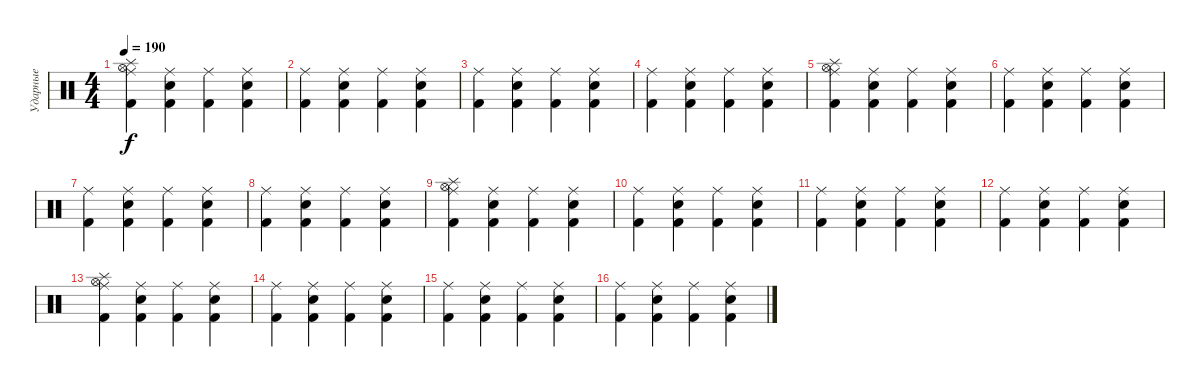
\track ("Ударные" "Ударные") {instrument percussion}
\staff {score}
\articulation defaults
\ts (4 4)
\tempo 190
\clef neutral
\ks c
("Hi-Hat (open)" "Ride (middle)" "Kick (hit) 2" "Splash (hit)").4{dy f} ("Ride (middle)" "Electric Snare (hit)" "Kick (hit) 2").4 ("Ride (middle)" "Kick (hit) 2").4 ("Ride (middle)" "Electric Snare (hit)" "Kick (hit) 2").4 |
("Ride (middle)" "Kick (hit) 2").4 ("Ride (middle)" "Electric Snare (hit)" "Kick (hit) 2").4 ("Ride (middle)" "Kick (hit) 2").4 ("Ride (middle)" "Electric Snare (hit)" "Kick (hit) 2").4 |
("Ride (middle)" "Kick (hit) 2").4 ("Ride (middle)" "Electric Snare (hit)" "Kick (hit) 2").4 ("Ride (middle)" "Kick (hit) 2").4 ("Ride (middle)" "Electric Snare (hit)" "Kick (hit) 2").4 |
("Ride (middle)" "Kick (hit) 2").4 ("Ride (middle)" "Electric Snare (hit)" "Kick (hit) 2").4 ("Ride (middle)" "Kick (hit) 2").4 ("Ride (middle)" "Electric Snare (hit)" "Kick (hit) 2").4 |
("Hi-Hat (open)" "Ride (middle)" "Kick (hit) 2" "Splash (hit)").4 ("Ride (middle)" "Electric Snare (hit)" "Kick (hit) 2").4 ("Ride (middle)" "Kick (hit) 2").4 ("Ride (middle)" "Electric Snare (hit)" "Kick (hit) 2").4 |
("Ride (middle)" "Kick (hit) 2").4 ("Ride (middle)" "Electric Snare (hit)" "Kick (hit) 2").4 ("Ride (middle)" "Kick (hit) 2").4 ("Ride (middle)" "Electric Snare (hit)" "Kick (hit) 2").4 |
("Ride (middle)" "Kick (hit) 2").4 ("Ride (middle)" "Electric Snare (hit)" "Kick (hit) 2").4 ("Ride (middle)" "Kick (hit) 2").4 ("Ride (middle)" "Electric Snare (hit)" "Kick (hit) 2").4 |
("Ride (middle)" "Kick (hit) 2").4 ("Ride (middle)" "Electric Snare (hit)" "Kick (hit) 2").4 ("Ride (middle)" "Kick (hit) 2").4 ("Ride (middle)" "Electric Snare (hit)" "Kick (hit) 2").4 |
("Hi-Hat (open)" "Ride (middle)" "Kick (hit) 2" "Splash (hit)").4 ("Ride (middle)" "Electric Snare (hit)" "Kick (hit) 2").4 ("Ride (middle)" "Kick (hit) 2").4 ("Ride (middle)" "Electric Snare (hit)" "Kick (hit) 2").4 |
("Ride (middle)" "Kick (hit) 2").4 ("Ride (middle)" "Electric Snare (hit)" "Kick (hit) 2").4 ("Ride (middle)" "Kick (hit) 2").4 ("Ride (middle)" "Electric Snare (hit)" "Kick (hit) 2").4 |
("Ride (middle)" "Kick (hit) 2").4 ("Ride (middle)" "Electric Snare (hit)" "Kick (hit) 2").4 ("Ride (middle)" "Kick (hit) 2").4 ("Ride (middle)" "Electric Snare (hit)" "Kick (hit) 2").4 |
("Ride (middle)" "Kick (hit) 2").4 ("Ride (middle)" "Electric Snare (hit)" "Kick (hit) 2").4 ("Ride (middle)" "Kick (hit) 2").4 ("Ride (middle)" "Electric Snare (hit)" "Kick (hit) 2").4 |
("Hi-Hat (open)" "Ride (middle)" "Kick (hit) 2" "Splash (hit)").4 ("Ride (middle)" "Electric Snare (hit)" "Kick (hit) 2").4 ("Ride (middle)" "Kick (hit) 2").4 ("Ride (middle)" "Electric Snare (hit)" "Kick (hit) 2").4 |
("Ride (middle)" "Kick (hit) 2").4 ("Ride (middle)" "Electric Snare (hit)" "Kick (hit) 2").4 ("Ride (middle)" "Kick (hit) 2").4 ("Ride (middle)" "Electric Snare (hit)" "Kick (hit) 2").4 |
("Ride (middle)" "Kick (hit) 2").4 ("Ride (middle)" "Electric Snare (hit)" "Kick (hit) 2").4 ("Ride (middle)" "Kick (hit) 2").4 ("Ride (middle)" "Electric Snare (hit)" "Kick (hit) 2").4 |
("Ride (middle)" "Kick (hit) 2").4 ("Ride (middle)" "Electric Snare (hit)" "Kick (hit) 2").4 ("Ride (middle)" "Kick (hit) 2").4 ("Ride (middle)" "Electric Snare (hit)" "Kick (hit) 2").4
